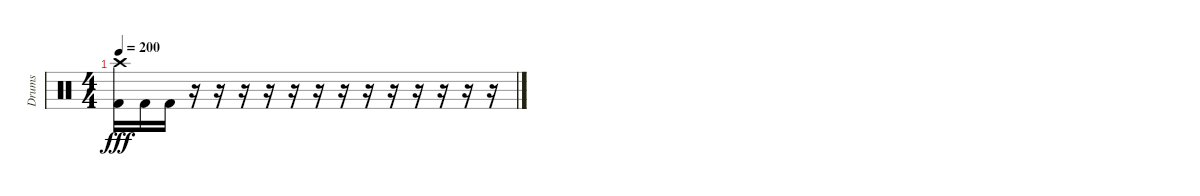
\track ("Drums" "Drums") {instrument percussion}
\staff {score}
\articulation defaults
\ts (4 4)
\tempo 200
\clef neutral
\ks c
("Crash high (hit)" "Kick (hit) 2").16{dy fff} "Kick (hit) 2".16 "Kick (hit) 2".16 r.16 r.16 r.16 r.16 r.16 r.16 r.16 r.16 r.16 r.16 r.16 r.16 r.16
